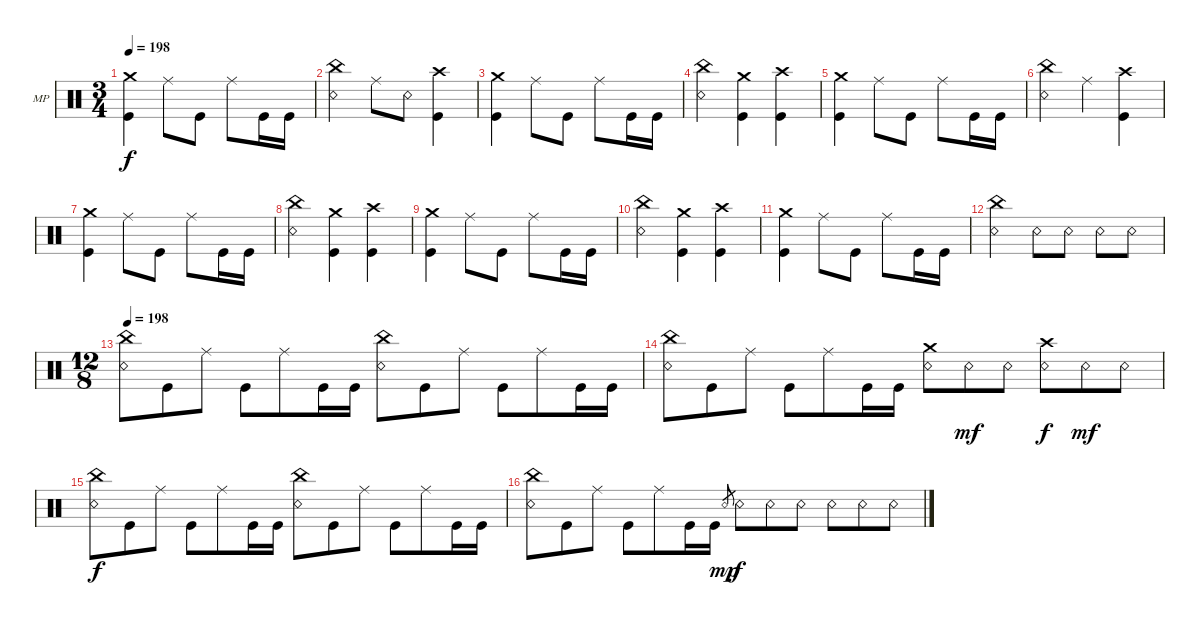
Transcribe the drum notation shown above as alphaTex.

\defaultSystemsLayout 4
\bracketExtendMode groupsimilarinstruments
\firstSystemTrackNameOrientation horizontal
\otherSystemsTrackNameOrientation horizontal
\track ("Mike Portnoy" "MP") {instrument percussion}
\staff {score}
\articulation defaults
\ts (3 4)
\tempo 198
\clef neutral
\ks aminor
("Crash medium (hit)" "Kick (hit)").4{dy f} "Ride (middle)".8 "Kick (hit)".8 "Ride (middle)".8 "Kick (hit)".16 "Kick (hit)".16 |
("China (hit)" "Snare (rim shot)").4 "Ride (middle)".8 "Snare (rim shot)".8 ("Crash high (hit)" "Kick (hit)").4 |
("Crash medium (hit)" "Kick (hit)").4 "Ride (middle)".8 "Kick (hit)".8 "Ride (middle)".8 "Kick (hit)".16 "Kick (hit)".16 |
("China (hit)" "Snare (rim shot)").4 ("Crash medium (hit)" "Kick (hit)").4 ("Crash high (hit)" "Kick (hit)").4 |
("Crash medium (hit)" "Kick (hit)").4 "Ride (middle)".8 "Kick (hit)".8 "Ride (middle)".8 "Kick (hit)".16 "Kick (hit)".16 |
("China (hit)" "Snare (rim shot)").4 "Ride (middle)".4 ("Crash high (hit)" "Kick (hit)").4 |
("Crash medium (hit)" "Kick (hit)").4 "Ride (middle)".8 "Kick (hit)".8 "Ride (middle)".8 "Kick (hit)".16 "Kick (hit)".16 |
("China (hit)" "Snare (rim shot)").4 ("Crash medium (hit)" "Kick (hit)").4 ("Crash high (hit)" "Kick (hit)").4 |
("Crash medium (hit)" "Kick (hit)").4 "Ride (middle)".8 "Kick (hit)".8 "Ride (middle)".8 "Kick (hit)".16 "Kick (hit)".16 |
("China (hit)" "Snare (rim shot)").4 ("Crash medium (hit)" "Kick (hit)").4 ("Crash high (hit)" "Kick (hit)").4 |
("Crash medium (hit)" "Kick (hit)").4 "Ride (middle)".8 "Kick (hit)".8 "Ride (middle)".8 "Kick (hit)".16 "Kick (hit)".16 |
("China (hit)" "Snare (rim shot)").4 "Snare (rim shot)".8 "Snare (rim shot)".8 "Snare (rim shot)".8 "Snare (rim shot)".8 |
\ts (12 8)
\tempo 198
("China (hit)" "Snare (rim shot)").8 "Kick (hit)".8 "Ride (middle)".8 "Kick (hit)".8 "Ride (middle)".8 "Kick (hit)".16 "Kick (hit)".16 ("China (hit)" "Snare (rim shot)").8 "Kick (hit)".8 "Ride (middle)".8 "Kick (hit)".8 "Ride (middle)".8 "Kick (hit)".16 "Kick (hit)".16 |
("China (hit)" "Snare (rim shot)").8 "Kick (hit)".8 "Ride (middle)".8 "Kick (hit)".8 "Ride (middle)".8 "Kick (hit)".16 "Kick (hit)".16 ("Crash medium (hit)" "Snare (rim shot)").8 "Snare (rim shot)".8{dy mf} "Snare (rim shot)".8 ("Crash high (hit)" "Snare (rim shot)").8{dy f} "Snare (rim shot)".8{dy mf} "Snare (rim shot)".8 |
("China (hit)" "Snare (rim shot)").8{dy f} "Kick (hit)".8 "Ride (middle)".8 "Kick (hit)".8 "Ride (middle)".8 "Kick (hit)".16 "Kick (hit)".16 ("China (hit)" "Snare (rim shot)").8 "Kick (hit)".8 "Ride (middle)".8 "Kick (hit)".8 "Ride (middle)".8 "Kick (hit)".16 "Kick (hit)".16 |
("China (hit)" "Snare (rim shot)").8 "Kick (hit)".8 "Ride (middle)".8 "Kick (hit)".8 "Ride (middle)".8 "Kick (hit)".16 "Kick (hit)".16 "Snare (rim shot)".8{gr dy mp} "Snare (rim shot)".8{dy f} "Snare (rim shot)".8 "Snare (rim shot)".8 "Snare (rim shot)".8 "Snare (rim shot)".8 "Snare (rim shot)".8
